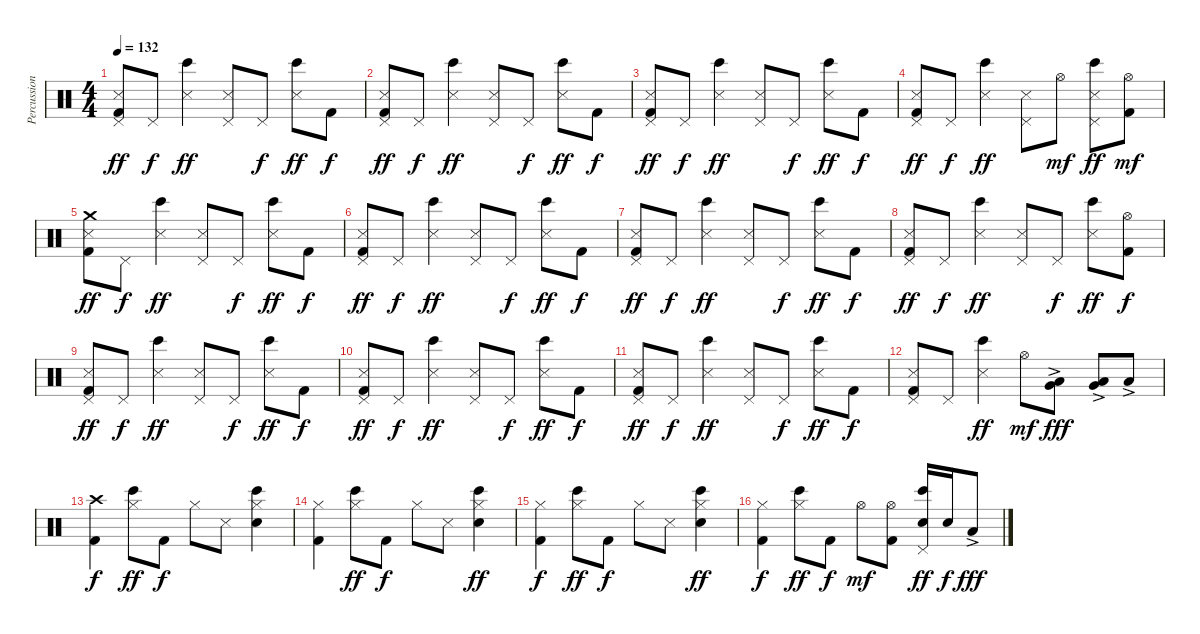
\track ("Percussion" "Percussion") {instrument percussion}
\staff {score}
\articulation defaults
\ts (4 4)
\tempo 132
\clef neutral
\ks c
("Pedal Hi-Hat (hit)" "Snare (side stick) 3" "Kick (hit) 2").8{dy ff} "Pedal Hi-Hat (hit)".8{dy f} ("Bongo High (hit)" "Snare (side stick) 3").4{dy ff} ("Pedal Hi-Hat (hit)" "Snare (side stick) 3").8 "Pedal Hi-Hat (hit)".8{dy f} ("Bongo High (hit)" "Snare (side stick) 3").8{dy ff} "Kick (hit) 2".8{dy f} |
("Pedal Hi-Hat (hit)" "Snare (side stick) 3" "Kick (hit) 2").8{dy ff} "Pedal Hi-Hat (hit)".8{dy f} ("Bongo High (hit)" "Snare (side stick) 3").4{dy ff} ("Pedal Hi-Hat (hit)" "Snare (side stick) 3").8 "Pedal Hi-Hat (hit)".8{dy f} ("Bongo High (hit)" "Snare (side stick) 3").8{dy ff} "Kick (hit) 2".8{dy f} |
("Pedal Hi-Hat (hit)" "Snare (side stick) 3" "Kick (hit) 2").8{dy ff} "Pedal Hi-Hat (hit)".8{dy f} ("Bongo High (hit)" "Snare (side stick) 3").4{dy ff} ("Pedal Hi-Hat (hit)" "Snare (side stick) 3").8 "Pedal Hi-Hat (hit)".8{dy f} ("Bongo High (hit)" "Snare (side stick) 3").8{dy ff} "Kick (hit) 2".8{dy f} |
("Pedal Hi-Hat (hit)" "Snare (side stick) 3" "Kick (hit) 2").8{dy ff} "Pedal Hi-Hat (hit)".8{dy f} ("Bongo High (hit)" "Snare (side stick) 3").4{dy ff} ("Pedal Hi-Hat (hit)" "Snare (side stick) 3").8 "Hi-Hat (open)".8{dy mf} ("Pedal Hi-Hat (hit)" "Bongo High (hit)" "Snare (side stick) 3").8{dy ff} ("Hi-Hat (open)" "Kick (hit) 2").8{dy mf} |
("Crash medium (hit)" "Snare (side stick) 3" "Kick (hit) 2").8{dy ff} "Pedal Hi-Hat (hit)".8{dy f} ("Bongo High (hit)" "Snare (side stick) 3").4{dy ff} ("Pedal Hi-Hat (hit)" "Snare (side stick) 3").8 "Pedal Hi-Hat (hit)".8{dy f} ("Bongo High (hit)" "Snare (side stick) 3").8{dy ff} "Kick (hit) 2".8{dy f} |
("Pedal Hi-Hat (hit)" "Snare (side stick) 3" "Kick (hit) 2").8{dy ff} "Pedal Hi-Hat (hit)".8{dy f} ("Bongo High (hit)" "Snare (side stick) 3").4{dy ff} ("Pedal Hi-Hat (hit)" "Snare (side stick) 3").8 "Pedal Hi-Hat (hit)".8{dy f} ("Bongo High (hit)" "Snare (side stick) 3").8{dy ff} "Kick (hit) 2".8{dy f} |
("Pedal Hi-Hat (hit)" "Snare (side stick) 3" "Kick (hit) 2").8{dy ff} "Pedal Hi-Hat (hit)".8{dy f} ("Bongo High (hit)" "Snare (side stick) 3").4{dy ff} ("Pedal Hi-Hat (hit)" "Snare (side stick) 3").8 "Pedal Hi-Hat (hit)".8{dy f} ("Bongo High (hit)" "Snare (side stick) 3").8{dy ff} "Kick (hit) 2".8{dy f} |
("Pedal Hi-Hat (hit)" "Snare (side stick) 3" "Kick (hit) 2").8{dy ff} "Pedal Hi-Hat (hit)".8{dy f} ("Bongo High (hit)" "Snare (side stick) 3").4{dy ff} ("Pedal Hi-Hat (hit)" "Snare (side stick) 3").8 "Pedal Hi-Hat (hit)".8{dy f} ("Bongo High (hit)" "Snare (side stick) 3").8{dy ff} ("Hi-Hat (open)" "Kick (hit) 2").8{dy f} |
("Pedal Hi-Hat (hit)" "Snare (side stick) 3" "Kick (hit) 2").8{dy ff} "Pedal Hi-Hat (hit)".8{dy f} ("Bongo High (hit)" "Snare (side stick) 3").4{dy ff} ("Pedal Hi-Hat (hit)" "Snare (side stick) 3").8 "Pedal Hi-Hat (hit)".8{dy f} ("Bongo High (hit)" "Snare (side stick) 3").8{dy ff} "Kick (hit) 2".8{dy f} |
("Pedal Hi-Hat (hit)" "Snare (side stick) 3" "Kick (hit) 2").8{dy ff} "Pedal Hi-Hat (hit)".8{dy f} ("Bongo High (hit)" "Snare (side stick) 3").4{dy ff} ("Pedal Hi-Hat (hit)" "Snare (side stick) 3").8 "Pedal Hi-Hat (hit)".8{dy f} ("Bongo High (hit)" "Snare (side stick) 3").8{dy ff} "Kick (hit) 2".8{dy f} |
("Pedal Hi-Hat (hit)" "Snare (side stick) 3" "Kick (hit) 2").8{dy ff} "Pedal Hi-Hat (hit)".8{dy f} ("Bongo High (hit)" "Snare (side stick) 3").4{dy ff} ("Pedal Hi-Hat (hit)" "Snare (side stick) 3").8 "Pedal Hi-Hat (hit)".8{dy f} ("Bongo High (hit)" "Snare (side stick) 3").8{dy ff} "Kick (hit) 2".8{dy f} |
("Pedal Hi-Hat (hit)" "Snare (side stick) 3" "Kick (hit) 2").8 "Pedal Hi-Hat (hit)".8 ("Bongo High (hit)" "Snare (side stick) 3").4{dy ff} "Hi-Hat (open)".8{dy mf} ("Low Tom (hit)"{ac} "Very Low Tom (hit)").8{dy fff} ("Low Tom (hit)"{ac} "Very Low Tom (hit)").8 "Low Tom (hit)"{ac}.8 |
("Crash high (hit)" "Kick (hit) 2").4{dy f} ("Hi-Hat (closed)" "Bongo High (hit)").8{dy ff} "Kick (hit) 2".8{dy f} "Hi-Hat (closed)".8 "Snare (side stick) 3".8 ("Hi-Hat (closed)" "Bongo High (hit)" "Snare (hit) 2").4 |
("Hi-Hat (closed)" "Kick (hit) 2").4 ("Hi-Hat (closed)" "Bongo High (hit)").8{dy ff} "Kick (hit) 2".8{dy f} "Hi-Hat (closed)".8 "Snare (side stick) 3".8 ("Hi-Hat (closed)" "Bongo High (hit)" "Snare (hit) 2").4{dy ff} |
("Hi-Hat (closed)" "Kick (hit) 2").4{dy f} ("Hi-Hat (closed)" "Bongo High (hit)").8{dy ff} "Kick (hit) 2".8{dy f} "Hi-Hat (closed)".8 "Snare (side stick) 3".8 ("Hi-Hat (closed)" "Bongo High (hit)" "Snare (hit) 2").4{dy ff} |
("Hi-Hat (closed)" "Kick (hit) 2").4{dy f} ("Hi-Hat (closed)" "Bongo High (hit)").8{dy ff} "Kick (hit) 2".8{dy f} "Hi-Hat (open)".8{dy mf} ("Hi-Hat (open)" "Kick (hit) 2").8 ("Pedal Hi-Hat (hit)" "Bongo High (hit)" "Snare (hit) 2").16{dy ff} "Snare (hit) 2".16{dy f} "Low Tom (hit)"{ac}.8{dy fff}
